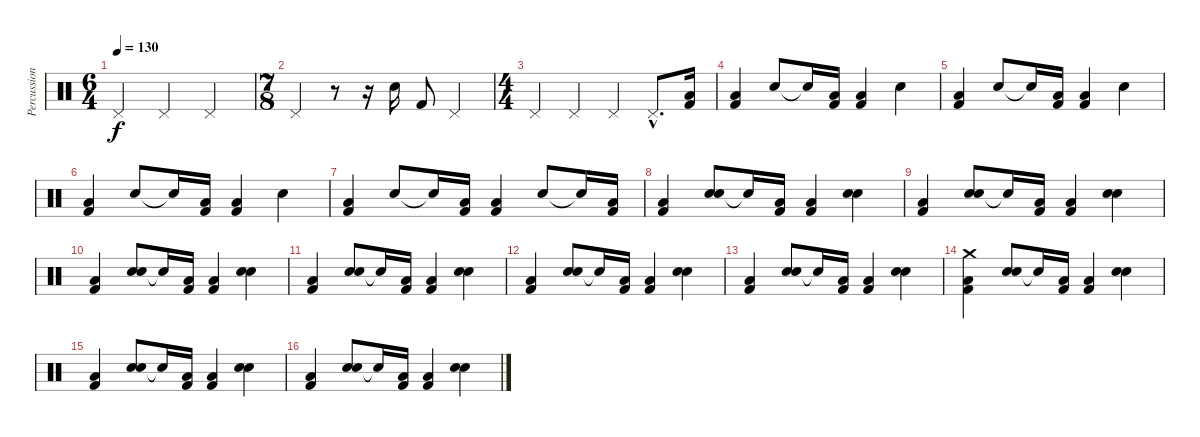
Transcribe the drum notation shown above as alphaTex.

\track ("Percussion" "Percussion") {instrument percussion}
\staff {score}
\articulation defaults
\ts (6 4)
\tempo 130
\clef neutral
\ks c "Pedal Hi-Hat (hit)".2{dy f} "Pedal Hi-Hat (hit)".2 "Pedal Hi-Hat (hit)".2
|
\ts (7 8)
"Pedal Hi-Hat (hit)".4 r.8 r.16 "Snare (hit) 2".16 "Kick (hit) 2".8 "Pedal Hi-Hat (hit)".4 |
\ts (4 4)
"Pedal Hi-Hat (hit)".4 "Pedal Hi-Hat (hit)".4 "Pedal Hi-Hat (hit)".4 "Pedal Hi-Hat (hit)"{hac}.8{d} ("Low Floor Tom (hit)" "Kick (hit) 2").16 |
("Low Floor Tom (hit)" "Kick (hit) 2").4 "Snare (hit) 2".8 "Snare (hit)"{t}.16 ("Low Floor Tom (hit)" "Kick (hit) 2").16 ("Low Floor Tom (hit)" "Kick (hit) 2").4 "Snare (hit) 2".4 |
("Low Floor Tom (hit)" "Kick (hit) 2").4 "Snare (hit) 2".8 "Snare (hit)"{t}.16 ("Low Floor Tom (hit)" "Kick (hit) 2").16 ("Low Floor Tom (hit)" "Kick (hit) 2").4 "Snare (hit) 2".4 |
("Low Floor Tom (hit)" "Kick (hit) 2").4 "Snare (hit) 2".8 "Snare (hit)"{t}.16 ("Low Floor Tom (hit)" "Kick (hit) 2").16 ("Low Floor Tom (hit)" "Kick (hit) 2").4 "Snare (hit) 2".4 |
("Low Floor Tom (hit)" "Kick (hit) 2").4 "Snare (hit) 2".8 "Snare (hit)"{t}.16 ("Low Floor Tom (hit)" "Kick (hit) 2").16 ("Low Floor Tom (hit)" "Kick (hit) 2").4 "Snare (hit) 2".8 "Snare (hit)"{t}.16 ("Low Floor Tom (hit)" "Kick (hit) 2").16 |
("Low Floor Tom (hit)" "Kick (hit) 2").4 ("Hand Clap (hit)" "Snare (hit) 2").8 "Snare (hit)"{t}.16 ("Low Floor Tom (hit)" "Kick (hit) 2").16 ("Low Floor Tom (hit)" "Kick (hit) 2").4 ("Hand Clap (hit)" "Snare (hit) 2").4 |
("Low Floor Tom (hit)" "Kick (hit) 2").4 ("Hand Clap (hit)" "Snare (hit) 2").8 "Snare (hit)"{t}.16 ("Low Floor Tom (hit)" "Kick (hit) 2").16 ("Low Floor Tom (hit)" "Kick (hit) 2").4 ("Hand Clap (hit)" "Snare (hit) 2").4 |
("Low Floor Tom (hit)" "Kick (hit) 2").4 ("Hand Clap (hit)" "Snare (hit) 2").8 "Snare (hit)"{t}.16 ("Low Floor Tom (hit)" "Kick (hit) 2").16 ("Low Floor Tom (hit)" "Kick (hit) 2").4 ("Hand Clap (hit)" "Snare (hit) 2").4 |
("Low Floor Tom (hit)" "Kick (hit) 2").4 ("Hand Clap (hit)" "Snare (hit) 2").8 "Snare (hit)"{t}.16 ("Low Floor Tom (hit)" "Kick (hit) 2").16 ("Low Floor Tom (hit)" "Kick (hit) 2").4 ("Hand Clap (hit)" "Snare (hit) 2").4 |
("Low Floor Tom (hit)" "Kick (hit) 2").4 ("Hand Clap (hit)" "Snare (hit) 2").8 "Snare (hit)"{t}.16 ("Low Floor Tom (hit)" "Kick (hit) 2").16 ("Low Floor Tom (hit)" "Kick (hit) 2").4 ("Hand Clap (hit)" "Snare (hit) 2").4 |
("Low Floor Tom (hit)" "Kick (hit) 2").4 ("Hand Clap (hit)" "Snare (hit) 2").8 "Snare (hit)"{t}.16 ("Low Floor Tom (hit)" "Kick (hit) 2").16 ("Low Floor Tom (hit)" "Kick (hit) 2").4 ("Hand Clap (hit)" "Snare (hit) 2").4 |
("Crash medium (hit)" "Low Floor Tom (hit)" "Kick (hit) 2").4 ("Hand Clap (hit)" "Snare (hit) 2").8 "Snare (hit)"{t}.16 ("Low Floor Tom (hit)" "Kick (hit) 2").16 ("Low Floor Tom (hit)" "Kick (hit) 2").4 ("Hand Clap (hit)" "Snare (hit) 2").4 |
("Low Floor Tom (hit)" "Kick (hit) 2").4 ("Hand Clap (hit)" "Snare (hit) 2").8 "Snare (hit)"{t}.16 ("Low Floor Tom (hit)" "Kick (hit) 2").16 ("Low Floor Tom (hit)" "Kick (hit) 2").4 ("Hand Clap (hit)" "Snare (hit) 2").4 |
("Low Floor Tom (hit)" "Kick (hit) 2").4 ("Hand Clap (hit)" "Snare (hit) 2").8 "Snare (hit)"{t}.16 ("Low Floor Tom (hit)" "Kick (hit) 2").16 ("Low Floor Tom (hit)" "Kick (hit) 2").4 ("Hand Clap (hit)" "Snare (hit) 2").4
